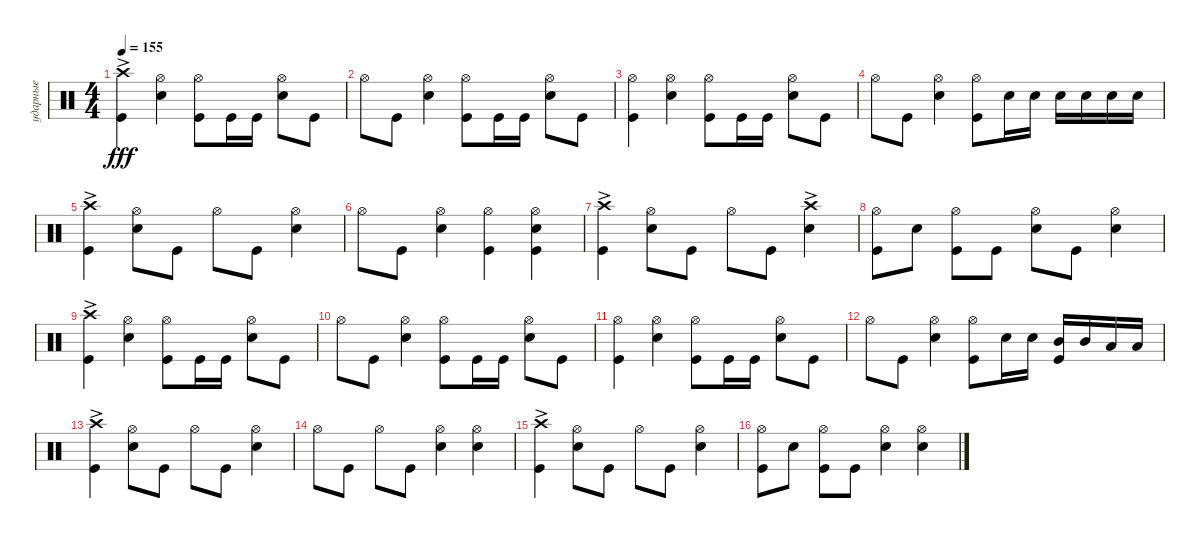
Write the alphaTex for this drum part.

\track ("ударные" "ударные") {instrument percussion}
\staff {score}
\articulation defaults
\ts (4 4)
\tempo 155
\clef neutral
\ks aminor
("Kick (hit)" "Crash high (hit)"{ac}).4{dy fff} ("Snare (hit) 2" "Hi-Hat (open)").4 ("Kick (hit)" "Hi-Hat (open)").8 "Kick (hit)".16 "Kick (hit)".16 ("Snare (hit) 2" "Hi-Hat (open)").8 "Kick (hit)".8 |
"Hi-Hat (open)".8 "Kick (hit)".8 ("Snare (hit) 2" "Hi-Hat (open)").4 ("Kick (hit)" "Hi-Hat (open)").8 "Kick (hit)".16 "Kick (hit)".16 ("Snare (hit) 2" "Hi-Hat (open)").8 "Kick (hit)".8 |
("Kick (hit)" "Hi-Hat (open)").4 ("Snare (hit) 2" "Hi-Hat (open)").4 ("Kick (hit)" "Hi-Hat (open)").8 "Kick (hit)".16 "Kick (hit)".16 ("Snare (hit) 2" "Hi-Hat (open)").8 "Kick (hit)".8 |
"Hi-Hat (open)".8 "Kick (hit)".8 ("Snare (hit) 2" "Hi-Hat (open)").4 ("Kick (hit)" "Hi-Hat (open)").8 "Snare (hit) 2".16 "Snare (hit) 2".16 "Snare (hit) 2".16 "Snare (hit) 2".16 "Snare (hit) 2".16 "Snare (hit) 2".16 |
("Kick (hit)" "Crash high (hit)"{ac}).4 ("Snare (hit) 2" "Hi-Hat (open)").8 "Kick (hit)".8 "Hi-Hat (open)".8 "Kick (hit)".8 ("Snare (hit) 2" "Hi-Hat (open)").4 |
"Hi-Hat (open)".8 "Kick (hit)".8 ("Snare (hit) 2" "Hi-Hat (open)").4 ("Kick (hit)" "Hi-Hat (open)").4 ("Kick (hit)" "Snare (hit) 2" "Hi-Hat (open)").4 |
("Kick (hit)" "Crash high (hit)"{ac}).4 ("Snare (hit) 2" "Hi-Hat (open)").8 "Kick (hit)".8 "Hi-Hat (open)".8 "Kick (hit)".8 ("Snare (hit) 2" "Crash high (hit)"{ac}).4 |
("Kick (hit)" "Hi-Hat (open)").8 "Snare (hit) 2".8 ("Kick (hit)" "Hi-Hat (open)").8 "Kick (hit)".8 ("Snare (hit) 2" "Hi-Hat (open)").8 "Kick (hit)".8 ("Snare (hit) 2" "Hi-Hat (open)").4 |
("Kick (hit)" "Crash high (hit)"{ac}).4 ("Snare (hit) 2" "Hi-Hat (open)").4 ("Kick (hit)" "Hi-Hat (open)").8 "Kick (hit)".16 "Kick (hit)".16 ("Snare (hit) 2" "Hi-Hat (open)").8 "Kick (hit)".8 |
"Hi-Hat (open)".8 "Kick (hit)".8 ("Snare (hit) 2" "Hi-Hat (open)").4 ("Kick (hit)" "Hi-Hat (open)").8 "Kick (hit)".16 "Kick (hit)".16 ("Snare (hit) 2" "Hi-Hat (open)").8 "Kick (hit)".8 |
("Kick (hit)" "Hi-Hat (open)").4 ("Snare (hit) 2" "Hi-Hat (open)").4 ("Kick (hit)" "Hi-Hat (open)").8 "Kick (hit)".16 "Kick (hit)".16 ("Snare (hit) 2" "Hi-Hat (open)").8 "Kick (hit)".8 |
"Hi-Hat (open)".8 "Kick (hit)".8 ("Snare (hit) 2" "Hi-Hat (open)").4 ("Hi-Hat (open)" "Kick (hit)").8 "Snare (hit) 2".16 "Snare (hit) 2".16 ("Mid Tom (hit)" "Kick (hit)").16 "Mid Tom (hit)".16 "Low Tom (hit)".16 "Low Tom (hit)".16 |
("Kick (hit)" "Crash high (hit)"{ac}).4 ("Snare (hit) 2" "Hi-Hat (open)").8 "Kick (hit)".8 "Hi-Hat (open)".8 "Kick (hit)".8 ("Snare (hit) 2" "Hi-Hat (open)").4 |
"Hi-Hat (open)".8 "Kick (hit)".8 "Hi-Hat (open)".8 "Kick (hit)".8 ("Snare (hit) 2" "Hi-Hat (open)").4 ("Snare (hit) 2" "Hi-Hat (open)").4 |
("Kick (hit)" "Crash high (hit)"{ac}).4 ("Snare (hit) 2" "Hi-Hat (open)").8 "Kick (hit)".8 "Hi-Hat (open)".8 "Kick (hit)".8 ("Snare (hit) 2" "Hi-Hat (open)").4 |
("Kick (hit)" "Hi-Hat (open)").8 "Snare (hit) 2".8 ("Kick (hit)" "Hi-Hat (open)").8 "Kick (hit)".8 ("Snare (hit) 2" "Hi-Hat (open)").4 ("Snare (hit) 2" "Hi-Hat (open)").4
